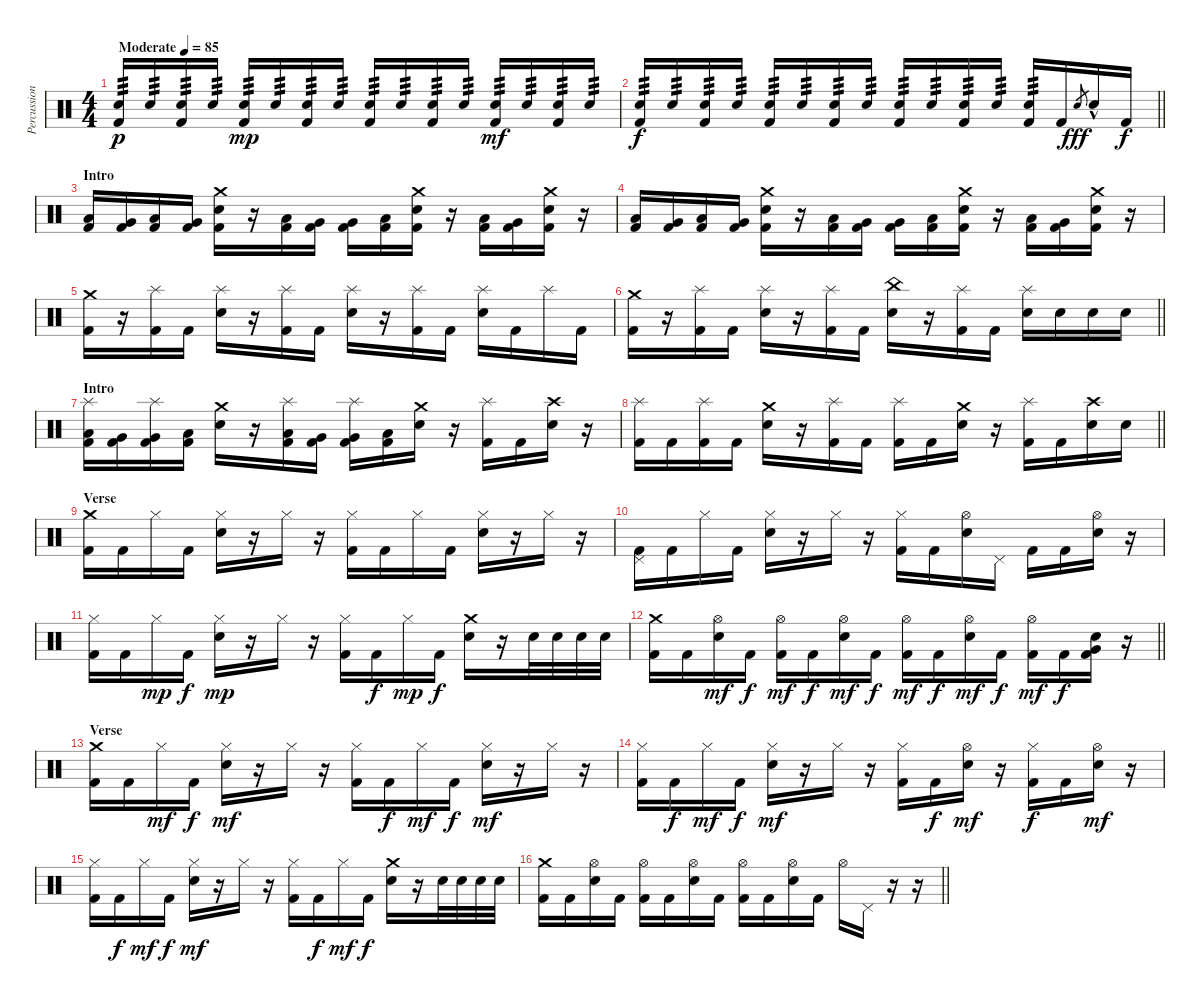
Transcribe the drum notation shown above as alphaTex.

\track ("Percussion" "Percussion") {instrument percussion}
\staff {score}
\articulation defaults
\ts (4 4)
\tempo (85 "Moderate")
\clef neutral
\ks c
("Electric Snare (hit)" "Kick (hit) 2").16{tp 3 dy p} "Electric Snare (hit)".16{tp 3} ("Electric Snare (hit)" "Kick (hit) 2").16{tp 3} "Electric Snare (hit)".16{tp 3} ("Electric Snare (hit)" "Kick (hit) 2").16{tp 3 dy mp} "Electric Snare (hit)".16{tp 3} ("Electric Snare (hit)" "Kick (hit) 2").16{tp 3} "Electric Snare (hit)".16{tp 3} ("Electric Snare (hit)" "Kick (hit) 2").16{tp 3} "Electric Snare (hit)".16{tp 3} ("Electric Snare (hit)" "Kick (hit) 2").16{tp 3} "Electric Snare (hit)".16{tp 3} ("Electric Snare (hit)" "Kick (hit) 2").16{tp 3 dy mf} "Electric Snare (hit)".16{tp 3} ("Electric Snare (hit)" "Kick (hit) 2").16{tp 3} "Electric Snare (hit)".16{tp 3} |
\barLineRight lightlight
("Electric Snare (hit)" "Kick (hit) 2").16{tp 3 dy f} "Electric Snare (hit)".16{tp 3} ("Electric Snare (hit)" "Kick (hit) 2").16{tp 3} "Electric Snare (hit)".16{tp 3} ("Electric Snare (hit)" "Kick (hit) 2").16{tp 3} "Electric Snare (hit)".16{tp 3} ("Electric Snare (hit)" "Kick (hit) 2").16{tp 3} "Electric Snare (hit)".16{tp 3} ("Electric Snare (hit)" "Kick (hit) 2").16{tp 3} "Electric Snare (hit)".16{tp 3} ("Electric Snare (hit)" "Kick (hit) 2").16{tp 3} "Electric Snare (hit)".16{tp 3} ("Electric Snare (hit)" "Kick (hit) 2").16{tp 3} "Kick (hit) 2".16 "Electric Snare (hit)".8{gr dy fff} "Electric Snare (hit)"{hac}.16 "Kick (hit) 2".16{dy f} |
\section ("" "Intro")
("Low Tom (hit)" "Kick (hit) 2").16 ("Very Low Tom (hit)" "Kick (hit) 2").16 ("Low Floor Tom (hit)" "Kick (hit) 2").16 ("Very Low Tom (hit)" "Kick (hit) 2").16 ("Crash medium (hit)" "Electric Snare (hit)" "Kick (hit) 2").16 r.16 ("Low Tom (hit)" "Kick (hit) 2").16 ("Very Low Tom (hit)" "Kick (hit) 2").16 ("Very Low Tom (hit)" "Kick (hit) 2").16 ("Low Floor Tom (hit)" "Kick (hit) 2").16 ("Crash medium (hit)" "Electric Snare (hit)" "Kick (hit) 2").16 r.16 ("Low Tom (hit)" "Kick (hit) 2").16 ("Very Low Tom (hit)" "Kick (hit) 2").16 ("Crash medium (hit)" "Electric Snare (hit)" "Kick (hit) 2").16 r.16 |
("Low Tom (hit)" "Kick (hit) 2").16 ("Very Low Tom (hit)" "Kick (hit) 2").16 ("Low Floor Tom (hit)" "Kick (hit) 2").16 ("Very Low Tom (hit)" "Kick (hit) 2").16 ("Crash medium (hit)" "Electric Snare (hit)" "Kick (hit) 2").16 r.16 ("Low Tom (hit)" "Kick (hit) 2").16 ("Very Low Tom (hit)" "Kick (hit) 2").16 ("Very Low Tom (hit)" "Kick (hit) 2").16 ("Low Floor Tom (hit)" "Kick (hit) 2").16 ("Crash medium (hit)" "Electric Snare (hit)" "Kick (hit) 2").16 r.16 ("Low Tom (hit)" "Kick (hit) 2").16 ("Very Low Tom (hit)" "Kick (hit) 2").16 ("Crash medium (hit)" "Electric Snare (hit)" "Kick (hit) 2").16 r.16 |
("Crash medium (hit)" "Kick (hit) 2").16 r.16 ("Splash (hit)" "Kick (hit) 2").16 "Kick (hit) 2".16 ("Splash (hit)" "Electric Snare (hit)").16 r.16 ("Splash (hit)" "Kick (hit) 2").16 "Kick (hit) 2".16 ("Splash (hit)" "Electric Snare (hit)").16 r.16 ("Splash (hit)" "Kick (hit) 2").16 "Kick (hit) 2".16 ("Splash (hit)" "Electric Snare (hit)").16 "Kick (hit) 2".16 "Splash (hit)".16 "Kick (hit) 2".16 |
\barLineRight lightlight
("Crash medium (hit)" "Kick (hit) 2").16 r.16 ("Splash (hit)" "Kick (hit) 2").16 "Kick (hit) 2".16 ("Splash (hit)" "Electric Snare (hit)").16 r.16 ("Splash (hit)" "Kick (hit) 2").16 "Kick (hit) 2".16 ("China (hit)" "Electric Snare (hit)").16 r.16 ("Splash (hit)" "Kick (hit) 2").16 "Kick (hit) 2".16 ("Splash (hit)" "Electric Snare (hit)").16 "Electric Snare (hit)".16 "Electric Snare (hit)".16 "Electric Snare (hit)".16 |
\section ("" "Intro")
("Splash (hit)" "Low Tom (hit)" "Kick (hit) 2").16 ("Very Low Tom (hit)" "Kick (hit) 2").16 ("Splash (hit)" "Very Low Tom (hit)" "Kick (hit) 2").16 ("Low Floor Tom (hit)" "Kick (hit) 2").16 ("Crash medium (hit)" "Electric Snare (hit)").16 r.16 ("Splash (hit)" "Low Tom (hit)" "Kick (hit) 2").16 ("Very Low Tom (hit)" "Kick (hit) 2").16 ("Splash (hit)" "Very Low Tom (hit)" "Kick (hit) 2").16 ("Low Floor Tom (hit)" "Kick (hit) 2").16 ("Crash medium (hit)" "Electric Snare (hit)").16 r.16 ("Splash (hit)" "Kick (hit) 2").16 "Kick (hit) 2".16 ("Crash high (hit)" "Electric Snare (hit)").16 r.16 |
\barLineRight lightlight
("Splash (hit)" "Kick (hit) 2").16 "Kick (hit) 2".16 ("Splash (hit)" "Kick (hit) 2").16 "Kick (hit) 2".16 ("Crash medium (hit)" "Electric Snare (hit)").16 r.16 ("Splash (hit)" "Kick (hit) 2").16 "Kick (hit) 2".16 ("Splash (hit)" "Kick (hit) 2").16 "Kick (hit) 2".16 ("Crash medium (hit)" "Electric Snare (hit)").16 r.16 ("Splash (hit)" "Kick (hit) 2").16 "Kick (hit) 2".16 ("Crash high (hit)" "Electric Snare (hit)").16 "Electric Snare (hit)".16 |
\section ("" "Verse")
("Crash medium (hit)" "Kick (hit) 2").16 "Kick (hit) 2".16 "Hi-Hat (closed)".16 "Kick (hit) 2".16 ("Hi-Hat (closed)" "Electric Snare (hit)").16 r.16 "Hi-Hat (closed)".16 r.16 ("Hi-Hat (closed)" "Kick (hit) 2").16 "Kick (hit) 2".16 "Hi-Hat (closed)".16 "Kick (hit) 2".16 ("Hi-Hat (closed)" "Electric Snare (hit)").16 r.16 "Hi-Hat (closed)".16 r.16 |
("Pedal Hi-Hat (hit)" "Kick (hit) 2").16 "Kick (hit) 2".16 "Hi-Hat (closed)".16 "Kick (hit) 2".16 ("Hi-Hat (closed)" "Electric Snare (hit)").16 r.16 "Hi-Hat (closed)".16 r.16 ("Hi-Hat (closed)" "Kick (hit) 2").16 "Kick (hit) 2".16 ("Hi-Hat (open)" "Electric Snare (hit)").16 "Pedal Hi-Hat (hit)".16 "Kick (hit) 2".16 "Kick (hit) 2".16 ("Hi-Hat (open)" "Electric Snare (hit)").16 r.16 |
("Hi-Hat (closed)" "Kick (hit) 2").16 "Kick (hit) 2".16 "Hi-Hat (closed)".16{dy mp} "Kick (hit) 2".16{dy f} ("Hi-Hat (closed)" "Electric Snare (hit)").16{dy mp} r.16 "Hi-Hat (closed)".16 r.16 ("Hi-Hat (closed)" "Kick (hit) 2").16 "Kick (hit) 2".16{dy f} "Hi-Hat (closed)".16{dy mp} "Kick (hit) 2".16{dy f} ("Crash medium (hit)" "Electric Snare (hit)").16 r.16 "Electric Snare (hit)".32 "Electric Snare (hit)".32 "Electric Snare (hit)".32 "Electric Snare (hit)".32 |
\barLineRight lightlight
("Crash medium (hit)" "Kick (hit) 2").16 "Kick (hit) 2".16 ("Hi-Hat (open)" "Electric Snare (hit)").16{dy mf} "Kick (hit) 2".16{dy f} ("Hi-Hat (open)" "Kick (hit) 2").16{dy mf} "Kick (hit) 2".16{dy f} ("Hi-Hat (open)" "Electric Snare (hit)").16{dy mf} "Kick (hit) 2".16{dy f} ("Hi-Hat (open)" "Kick (hit) 2").16{dy mf} "Kick (hit) 2".16{dy f} ("Hi-Hat (open)" "Electric Snare (hit)").16{dy mf} "Kick (hit) 2".16{dy f} ("Hi-Hat (open)" "Kick (hit) 2").16{dy mf} "Kick (hit) 2".16{dy f} ("Electric Snare (hit)" "Very Low Tom (hit)" "Kick (hit) 2").16 r.16 |
\section ("" "Verse")
("Crash medium (hit)" "Kick (hit) 2").16 "Kick (hit) 2".16 "Hi-Hat (closed)".16{dy mf} "Kick (hit) 2".16{dy f} ("Hi-Hat (closed)" "Electric Snare (hit)").16{dy mf} r.16 "Hi-Hat (closed)".16 r.16 ("Hi-Hat (closed)" "Kick (hit) 2").16 "Kick (hit) 2".16{dy f} "Hi-Hat (closed)".16{dy mf} "Kick (hit) 2".16{dy f} ("Hi-Hat (closed)" "Electric Snare (hit)").16{dy mf} r.16 "Hi-Hat (closed)".16 r.16 |
("Hi-Hat (closed)" "Kick (hit) 2").16 "Kick (hit) 2".16{dy f} "Hi-Hat (closed)".16{dy mf} "Kick (hit) 2".16{dy f} ("Hi-Hat (closed)" "Electric Snare (hit)").16{dy mf} r.16 "Hi-Hat (closed)".16 r.16 ("Hi-Hat (closed)" "Kick (hit) 2").16 "Kick (hit) 2".16{dy f} ("Hi-Hat (open)" "Electric Snare (hit)").16{dy mf} r.16 ("Hi-Hat (closed)" "Kick (hit) 2").16{dy f} "Kick (hit) 2".16 ("Hi-Hat (open)" "Electric Snare (hit)").16{dy mf} r.16 |
("Hi-Hat (closed)" "Kick (hit) 2").16 "Kick (hit) 2".16{dy f} "Hi-Hat (closed)".16{dy mf} "Kick (hit) 2".16{dy f} ("Hi-Hat (closed)" "Electric Snare (hit)").16{dy mf} r.16 "Hi-Hat (closed)".16 r.16 ("Hi-Hat (closed)" "Kick (hit) 2").16 "Kick (hit) 2".16{dy f} "Hi-Hat (closed)".16{dy mf} "Kick (hit) 2".16{dy f} ("Crash medium (hit)" "Electric Snare (hit)").16 r.16 "Electric Snare (hit)".32 "Electric Snare (hit)".32 "Electric Snare (hit)".32 "Electric Snare (hit)".32 |
\barLineRight lightlight
("Crash medium (hit)" "Kick (hit) 2").16 "Kick (hit) 2".16 ("Hi-Hat (open)" "Electric Snare (hit)").16 "Kick (hit) 2".16 ("Hi-Hat (open)" "Kick (hit) 2").16 "Kick (hit) 2".16 ("Hi-Hat (open)" "Electric Snare (hit)").16 "Kick (hit) 2".16 ("Hi-Hat (open)" "Kick (hit) 2").16 "Kick (hit) 2".16 ("Hi-Hat (open)" "Electric Snare (hit)").16 "Kick (hit) 2".16 "Hi-Hat (open)".16 "Pedal Hi-Hat (hit)".16 r.16 r.16
